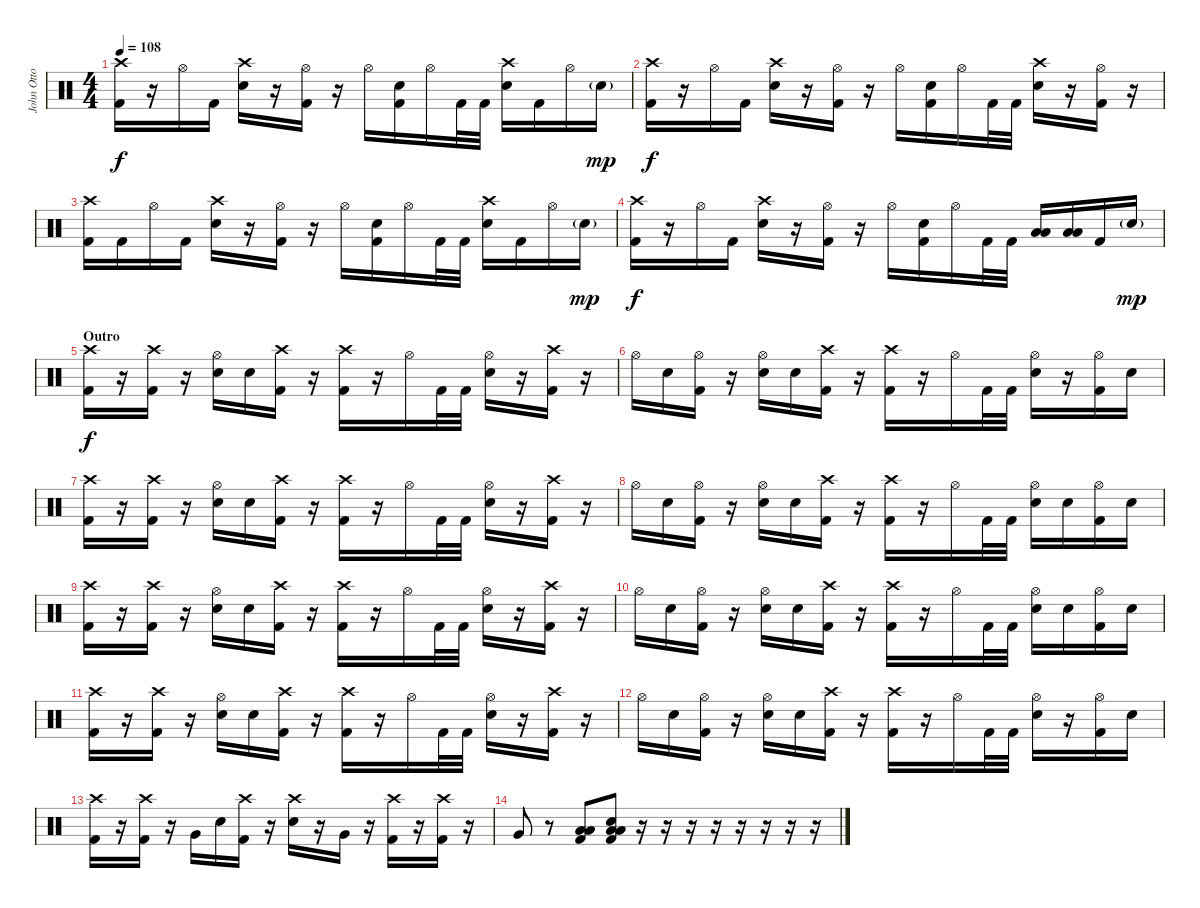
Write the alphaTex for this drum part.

\track ("John Otto" "John Otto") {instrument percussion}
\staff {score}
\articulation defaults
\ts (4 4)
\tempo 108
\clef neutral
\ks c
("Crash high (hit)" "Kick (hit) 2").16{dy f} r.16 "Hi-Hat (open)".16 "Kick (hit) 2".16 ("Crash high (hit)" "Snare (hit) 2").16 r.16 ("Hi-Hat (open)" "Kick (hit) 2").16 r.16 "Hi-Hat (open)".16 ("Snare (hit) 2" "Kick (hit) 2").16 "Hi-Hat (open)".16 "Kick (hit) 2".32 "Kick (hit) 2".32 ("Crash high (hit)" "Snare (hit) 2").16 "Kick (hit) 2".16 "Hi-Hat (open)".16 "Snare (hit) 2"{g}.16{dy mp} |
("Crash high (hit)" "Kick (hit) 2").16{dy f} r.16 "Hi-Hat (open)".16 "Kick (hit) 2".16 ("Crash high (hit)" "Snare (hit) 2").16 r.16 ("Hi-Hat (open)" "Kick (hit) 2").16 r.16 "Hi-Hat (open)".16 ("Snare (hit) 2" "Kick (hit) 2").16 "Hi-Hat (open)".16 "Kick (hit) 2".32 "Kick (hit) 2".32 ("Crash high (hit)" "Snare (hit) 2").16 r.16 ("Hi-Hat (open)" "Kick (hit) 2").16 r.16 |
("Crash high (hit)" "Kick (hit) 2").16 "Kick (hit) 2".16 "Hi-Hat (open)".16 "Kick (hit) 2".16 ("Crash high (hit)" "Snare (hit) 2").16 r.16 ("Hi-Hat (open)" "Kick (hit) 2").16 r.16 "Hi-Hat (open)".16 ("Snare (hit) 2" "Kick (hit) 2").16 "Hi-Hat (open)".16 "Kick (hit) 2".32 "Kick (hit) 2".32 ("Crash high (hit)" "Snare (hit) 2").16 "Kick (hit) 2".16 "Hi-Hat (open)".16 "Snare (hit) 2"{g}.16{dy mp} |
("Crash high (hit)" "Kick (hit) 2").16{dy f} r.16 "Hi-Hat (open)".16 "Kick (hit) 2".16 ("Crash high (hit)" "Snare (hit) 2").16 r.16 ("Hi-Hat (open)" "Kick (hit) 2").16 r.16 "Hi-Hat (open)".16 ("Snare (hit) 2" "Kick (hit) 2").16 "Hi-Hat (open)".16 "Kick (hit) 2".32 "Kick (hit) 2".32 ("Low Floor Tom (hit)" "Low Tom (hit)").16 ("Low Floor Tom (hit)" "Low Tom (hit)").16 "Kick (hit) 2".16 "Snare (hit) 2"{g}.16{dy mp} |
\section ("" "Outro")
("Crash high (hit)" "Kick (hit) 2").16{dy f} r.16 ("Crash high (hit)" "Kick (hit) 2").16 r.16 ("Hi-Hat (open)" "Snare (hit) 2").16 "Snare (hit) 2".16 ("Crash high (hit)" "Kick (hit) 2").16 r.16 ("Crash high (hit)" "Kick (hit) 2").16 r.16 "Hi-Hat (open)".16 "Kick (hit) 2".32 "Kick (hit) 2".32 ("Hi-Hat (open)" "Snare (hit) 2").16 r.16 ("Crash high (hit)" "Kick (hit) 2").16 r.16 |
"Hi-Hat (open)".16 "Snare (hit) 2".16 ("Hi-Hat (open)" "Kick (hit) 2").16 r.16 ("Hi-Hat (open)" "Snare (hit) 2").16 "Snare (hit) 2".16 ("Crash high (hit)" "Kick (hit) 2").16 r.16 ("Crash high (hit)" "Kick (hit) 2").16 r.16 "Hi-Hat (open)".16 "Kick (hit) 2".32 "Kick (hit) 2".32 ("Hi-Hat (open)" "Snare (hit) 2").16 r.16 ("Hi-Hat (open)" "Kick (hit) 2").16 "Snare (hit) 2".16 |
("Crash high (hit)" "Kick (hit) 2").16 r.16 ("Crash high (hit)" "Kick (hit) 2").16 r.16 ("Hi-Hat (open)" "Snare (hit) 2").16 "Snare (hit) 2".16 ("Crash high (hit)" "Kick (hit) 2").16 r.16 ("Crash high (hit)" "Kick (hit) 2").16 r.16 "Hi-Hat (open)".16 "Kick (hit) 2".32 "Kick (hit) 2".32 ("Hi-Hat (open)" "Snare (hit) 2").16 r.16 ("Crash high (hit)" "Kick (hit) 2").16 r.16 |
"Hi-Hat (open)".16 "Snare (hit) 2".16 ("Hi-Hat (open)" "Kick (hit) 2").16 r.16 ("Hi-Hat (open)" "Snare (hit) 2").16 "Snare (hit) 2".16 ("Crash high (hit)" "Kick (hit) 2").16 r.16 ("Crash high (hit)" "Kick (hit) 2").16 r.16 "Hi-Hat (open)".16 "Kick (hit) 2".32 "Kick (hit) 2".32 ("Hi-Hat (open)" "Snare (hit) 2").16 "Snare (hit) 2".16 ("Hi-Hat (open)" "Kick (hit) 2").16 "Snare (hit) 2".16 |
("Crash high (hit)" "Kick (hit) 2").16 r.16 ("Crash high (hit)" "Kick (hit) 2").16 r.16 ("Hi-Hat (open)" "Snare (hit) 2").16 "Snare (hit) 2".16 ("Crash high (hit)" "Kick (hit) 2").16 r.16 ("Crash high (hit)" "Kick (hit) 2").16 r.16 "Hi-Hat (open)".16 "Kick (hit) 2".32 "Kick (hit) 2".32 ("Hi-Hat (open)" "Snare (hit) 2").16 r.16 ("Crash high (hit)" "Kick (hit) 2").16 r.16 |
"Hi-Hat (open)".16 "Snare (hit) 2".16 ("Hi-Hat (open)" "Kick (hit) 2").16 r.16 ("Hi-Hat (open)" "Snare (hit) 2").16 "Snare (hit) 2".16 ("Crash high (hit)" "Kick (hit) 2").16 r.16 ("Crash high (hit)" "Kick (hit) 2").16 r.16 "Hi-Hat (open)".16 "Kick (hit) 2".32 "Kick (hit) 2".32 ("Hi-Hat (open)" "Snare (hit) 2").16 "Snare (hit) 2".16 ("Hi-Hat (open)" "Kick (hit) 2").16 "Snare (hit) 2".16 |
("Crash high (hit)" "Kick (hit) 2").16 r.16 ("Crash high (hit)" "Kick (hit) 2").16 r.16 ("Hi-Hat (open)" "Snare (hit) 2").16 "Snare (hit) 2".16 ("Crash high (hit)" "Kick (hit) 2").16 r.16 ("Crash high (hit)" "Kick (hit) 2").16 r.16 "Hi-Hat (open)".16 "Kick (hit) 2".32 "Kick (hit) 2".32 ("Hi-Hat (open)" "Snare (hit) 2").16 r.16 ("Crash high (hit)" "Kick (hit) 2").16 r.16 |
"Hi-Hat (open)".16 "Snare (hit) 2".16 ("Hi-Hat (open)" "Kick (hit) 2").16 r.16 ("Hi-Hat (open)" "Snare (hit) 2").16 "Snare (hit) 2".16 ("Crash high (hit)" "Kick (hit) 2").16 r.16 ("Crash high (hit)" "Kick (hit) 2").16 r.16 "Hi-Hat (open)".16 "Kick (hit) 2".32 "Kick (hit) 2".32 ("Hi-Hat (open)" "Snare (hit) 2").16 r.16 ("Hi-Hat (open)" "Kick (hit) 2").16 "Snare (hit) 2".16 |
("Crash high (hit)" "Kick (hit) 2").16 r.16 ("Crash high (hit)" "Kick (hit) 2").16 r.16 "Very Low Tom (hit)".16 "Snare (hit) 2".16 ("Crash high (hit)" "Kick (hit) 2").16 r.16 ("Crash high (hit)" "Snare (hit) 2").16 r.16 "Very Low Tom (hit)".16 r.16 ("Crash high (hit)" "Kick (hit) 2").16 r.16 ("Crash high (hit)" "Kick (hit) 2").16 r.16 |
"Very Low Tom (hit)".8 r.8 ("Low Floor Tom (hit)" "Low Tom (hit)" "Kick (hit) 2").8 ("Low Floor Tom (hit)" "Snare (hit) 2" "Low Tom (hit)" "Kick (hit) 2").8 r.16 r.16 r.16 r.16 r.16 r.16 r.16 r.16
